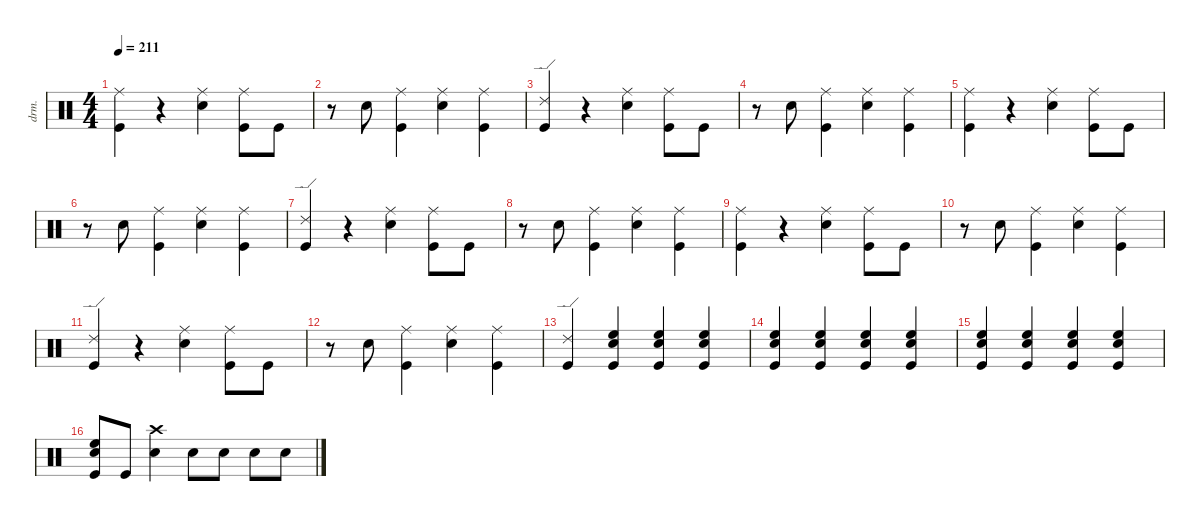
\defaultSystemsLayout 4
\hideDynamics
\bracketExtendMode nobrackets
\track ("Drums" "drm.") {instrument percussion}
\staff {score}
\articulation defaults
\ts (4 4)
\tempo 211
\clef neutral
\ks c
("Kick (hit)" "Ride (middle)"{acc #}).4{dy fff beam Down} r.4{beam Down} ("Snare (hit) 2" "Ride (middle)"{acc #}).4{dy ff beam Down} ("Kick (hit)" "Ride (middle)"{acc #}).8{dy f beam Down} "Kick (hit)".8{dy fff beam Down} |
r.8{beam Down} "Snare (hit) 2".8{dy p beam Down} ("Kick (hit)" "Ride (middle)"{acc #}).4{dy ff beam Down} ("Snare (hit) 2" "Ride (middle)"{acc #}).4{beam Down} ("Kick (hit)" "Ride (middle)"{acc #}).4{dy mf beam Down} |
("Kick (hit)" "Ride (edge) 2").4{dy fff beam Up} r.4{beam Down} ("Snare (hit) 2" "Ride (middle)"{acc #}).4{dy ff beam Down} ("Kick (hit)" "Ride (middle)"{acc #}).8{dy f beam Down} "Kick (hit)".8{dy fff beam Down} |
r.8{beam Down} "Snare (hit) 2".8{dy p beam Down} ("Kick (hit)" "Ride (middle)"{acc #}).4{dy ff beam Down} ("Snare (hit) 2" "Ride (middle)"{acc #}).4{beam Down} ("Kick (hit)" "Ride (middle)"{acc #}).4{dy mf beam Down} |
("Kick (hit)" "Ride (middle)"{acc #}).4{dy fff beam Down} r.4{beam Down} ("Snare (hit) 2" "Ride (middle)"{acc #}).4{dy ff beam Down} ("Kick (hit)" "Ride (middle)"{acc #}).8{dy f beam Down} "Kick (hit)".8{dy fff beam Down} |
r.8{beam Down} "Snare (hit) 2".8{dy p beam Down} ("Kick (hit)" "Ride (middle)"{acc #}).4{dy ff beam Down} ("Snare (hit) 2" "Ride (middle)"{acc #}).4{beam Down} ("Kick (hit)" "Ride (middle)"{acc #}).4{dy mf beam Down} |
("Kick (hit)" "Ride (edge) 2").4{dy fff beam Up} r.4{beam Down} ("Snare (hit) 2" "Ride (middle)"{acc #}).4{dy ff beam Down} ("Kick (hit)" "Ride (middle)"{acc #}).8{dy f beam Down} "Kick (hit)".8{dy fff beam Down} |
r.8{beam Down} "Snare (hit) 2".8{dy p beam Down} ("Kick (hit)" "Ride (middle)"{acc #}).4{dy ff beam Down} ("Snare (hit) 2" "Ride (middle)"{acc #}).4{beam Down} ("Kick (hit)" "Ride (middle)"{acc #}).4{dy mf beam Down} |
("Kick (hit)" "Ride (middle)"{acc #}).4{dy fff beam Down} r.4{beam Down} ("Snare (hit) 2" "Ride (middle)"{acc #}).4{dy ff beam Down} ("Kick (hit)" "Ride (middle)"{acc #}).8{dy f beam Down} "Kick (hit)".8{dy fff beam Down} |
r.8{beam Down} "Snare (hit) 2".8{dy p beam Down} ("Kick (hit)" "Ride (middle)"{acc #}).4{dy ff beam Down} ("Snare (hit) 2" "Ride (middle)"{acc #}).4{beam Down} ("Kick (hit)" "Ride (middle)"{acc #}).4{dy mf beam Down} |
("Kick (hit)" "Ride (edge) 2").4{dy fff beam Up} r.4{beam Down} ("Snare (hit) 2" "Ride (middle)"{acc #}).4{dy ff beam Down} ("Kick (hit)" "Ride (middle)"{acc #}).8{dy f beam Down} "Kick (hit)".8{dy fff beam Down} |
r.8{beam Down} "Snare (hit) 2".8{dy p beam Down} ("Kick (hit)" "Ride (middle)"{acc #}).4{dy ff beam Down} ("Snare (hit) 2" "Ride (middle)"{acc #}).4{beam Down} ("Kick (hit)" "Ride (middle)"{acc #}).4{dy mf beam Down} |
("Kick (hit)" "Ride (edge) 2").4{dy fff beam Up} ("Snare (hit) 2" "Kick (hit)" "High Floor Tom (hit)").4{dy ff beam Up} ("Kick (hit)" "Snare (hit) 2" "High Floor Tom (hit)").4{beam Up} ("Kick (hit)" "Snare (hit) 2" "High Floor Tom (hit)").4{beam Up} |
("Snare (hit) 2" "Kick (hit)" "High Floor Tom (hit)").4{beam Up} ("Kick (hit)" "Snare (hit) 2" "High Floor Tom (hit)").4{beam Up} ("Kick (hit)" "Snare (hit) 2" "High Floor Tom (hit)").4{beam Up} ("Snare (hit) 2" "Kick (hit)" "High Floor Tom (hit)").4{beam Up} |
("Kick (hit)" "Snare (hit) 2" "High Floor Tom (hit)").4{beam Up} ("Snare (hit) 2" "Kick (hit)" "High Floor Tom (hit)").4{beam Up} ("Snare (hit) 2" "Kick (hit)" "High Floor Tom (hit)").4{beam Up} ("Kick (hit)" "Snare (hit) 2" "High Floor Tom (hit)").4{beam Up} |
("Kick (hit)" "Snare (hit) 2" "High Floor Tom (hit)").8{dy f beam Up} "Kick (hit)".8{dy ff beam Up} ("Snare (hit) 2" "Crash high (hit)"{acc #}).4{dy fff beam Down} "Snare (hit) 2".8{beam Down} "Snare (hit) 2".8{dy f beam Down} "Snare (hit) 2".8{dy fff beam Down} "Snare (hit) 2".8{dy f beam Down}
